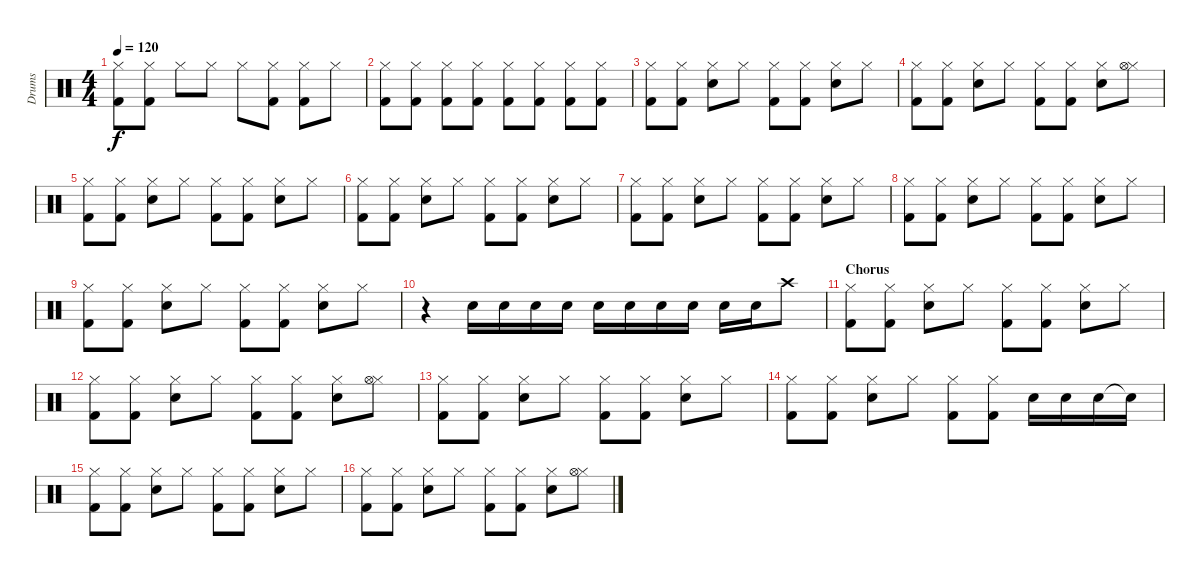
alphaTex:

\track ("Drums" "Drums") {instrument percussion}
\staff {score}
\articulation defaults
\ts (4 4)
\tempo 120
\clef neutral
\ks c
("Hi-Hat (closed)" "Kick (hit) 2").8{dy f} ("Hi-Hat (closed)" "Kick (hit) 2").8 "Hi-Hat (closed)".8 "Hi-Hat (closed)".8 "Hi-Hat (closed)".8 ("Hi-Hat (closed)" "Kick (hit) 2").8 ("Hi-Hat (closed)" "Kick (hit) 2").8 "Hi-Hat (closed)".8 |
("Hi-Hat (closed)" "Kick (hit) 2").8 ("Hi-Hat (closed)" "Kick (hit) 2").8 ("Hi-Hat (closed)" "Kick (hit) 2").8 ("Hi-Hat (closed)" "Kick (hit) 2").8 ("Hi-Hat (closed)" "Kick (hit) 2").8 ("Hi-Hat (closed)" "Kick (hit) 2").8 ("Hi-Hat (closed)" "Kick (hit) 2").8 ("Hi-Hat (closed)" "Kick (hit) 2").8 |
("Hi-Hat (closed)" "Kick (hit) 2").8 ("Hi-Hat (closed)" "Kick (hit) 2").8 ("Hi-Hat (closed)" "Snare (hit) 2").8 "Hi-Hat (closed)".8 ("Hi-Hat (closed)" "Kick (hit) 2").8 ("Hi-Hat (closed)" "Kick (hit) 2").8 ("Hi-Hat (closed)" "Snare (hit) 2").8 "Hi-Hat (closed)".8 |
("Hi-Hat (closed)" "Kick (hit) 2").8 ("Hi-Hat (closed)" "Kick (hit) 2").8 ("Hi-Hat (closed)" "Snare (hit) 2").8 "Hi-Hat (closed)".8 ("Hi-Hat (closed)" "Kick (hit) 2").8 ("Hi-Hat (closed)" "Kick (hit) 2").8 ("Hi-Hat (closed)" "Snare (hit) 2").8 ("Hi-Hat (closed)" "Hi-Hat (open)").8 |
("Hi-Hat (closed)" "Kick (hit) 2").8 ("Hi-Hat (closed)" "Kick (hit) 2").8 ("Hi-Hat (closed)" "Snare (hit) 2").8 "Hi-Hat (closed)".8 ("Hi-Hat (closed)" "Kick (hit) 2").8 ("Hi-Hat (closed)" "Kick (hit) 2").8 ("Hi-Hat (closed)" "Snare (hit) 2").8 "Hi-Hat (closed)".8 |
("Hi-Hat (closed)" "Kick (hit) 2").8 ("Hi-Hat (closed)" "Kick (hit) 2").8 ("Hi-Hat (closed)" "Snare (hit) 2").8 "Hi-Hat (closed)".8 ("Hi-Hat (closed)" "Kick (hit) 2").8 ("Hi-Hat (closed)" "Kick (hit) 2").8 ("Hi-Hat (closed)" "Snare (hit) 2").8 "Hi-Hat (closed)".8 |
("Hi-Hat (closed)" "Kick (hit) 2").8 ("Hi-Hat (closed)" "Kick (hit) 2").8 ("Hi-Hat (closed)" "Snare (hit) 2").8 "Hi-Hat (closed)".8 ("Hi-Hat (closed)" "Kick (hit) 2").8 ("Hi-Hat (closed)" "Kick (hit) 2").8 ("Hi-Hat (closed)" "Snare (hit) 2").8 "Hi-Hat (closed)".8 |
("Hi-Hat (closed)" "Kick (hit) 2").8 ("Hi-Hat (closed)" "Kick (hit) 2").8 ("Hi-Hat (closed)" "Snare (hit) 2").8 "Hi-Hat (closed)".8 ("Hi-Hat (closed)" "Kick (hit) 2").8 ("Hi-Hat (closed)" "Kick (hit) 2").8 ("Hi-Hat (closed)" "Snare (hit) 2").8 "Hi-Hat (closed)".8 |
("Hi-Hat (closed)" "Kick (hit) 2").8 ("Hi-Hat (closed)" "Kick (hit) 2").8 ("Hi-Hat (closed)" "Snare (hit) 2").8 "Hi-Hat (closed)".8 ("Hi-Hat (closed)" "Kick (hit) 2").8 ("Hi-Hat (closed)" "Kick (hit) 2").8 ("Hi-Hat (closed)" "Snare (hit) 2").8 "Hi-Hat (closed)".8 |
r.4 "Snare (hit) 2".16 "Snare (hit) 2".16 "Snare (hit) 2".16 "Snare (hit) 2".16 "Snare (hit) 2".16 "Snare (hit) 2".16 "Snare (hit) 2".16 "Snare (hit) 2".16 "Snare (hit) 2".16 "Snare (hit) 2".16 "Crash high (hit)".8 |
\section ("" "Chorus")
("Hi-Hat (closed)" "Kick (hit) 2").8 ("Hi-Hat (closed)" "Kick (hit) 2").8 ("Hi-Hat (closed)" "Snare (hit) 2").8 "Hi-Hat (closed)".8 ("Hi-Hat (closed)" "Kick (hit) 2").8 ("Hi-Hat (closed)" "Kick (hit) 2").8 ("Hi-Hat (closed)" "Snare (hit) 2").8 "Hi-Hat (closed)".8 |
("Hi-Hat (closed)" "Kick (hit) 2").8 ("Hi-Hat (closed)" "Kick (hit) 2").8 ("Hi-Hat (closed)" "Snare (hit) 2").8 "Hi-Hat (closed)".8 ("Hi-Hat (closed)" "Kick (hit) 2").8 ("Hi-Hat (closed)" "Kick (hit) 2").8 ("Hi-Hat (closed)" "Snare (hit) 2").8 ("Hi-Hat (closed)" "Hi-Hat (open)").8 |
("Hi-Hat (closed)" "Kick (hit) 2").8 ("Hi-Hat (closed)" "Kick (hit) 2").8 ("Hi-Hat (closed)" "Snare (hit) 2").8 "Hi-Hat (closed)".8 ("Hi-Hat (closed)" "Kick (hit) 2").8 ("Hi-Hat (closed)" "Kick (hit) 2").8 ("Hi-Hat (closed)" "Snare (hit) 2").8 "Hi-Hat (closed)".8 |
("Hi-Hat (closed)" "Kick (hit) 2").8 ("Hi-Hat (closed)" "Kick (hit) 2").8 ("Hi-Hat (closed)" "Snare (hit) 2").8 "Hi-Hat (closed)".8 ("Hi-Hat (closed)" "Kick (hit) 2").8 ("Hi-Hat (closed)" "Kick (hit) 2").8 "Snare (hit) 2".16 "Snare (hit) 2".16 "Snare (hit) 2".16 "Snare (hit)"{t}.16 |
("Hi-Hat (closed)" "Kick (hit) 2").8 ("Hi-Hat (closed)" "Kick (hit) 2").8 ("Hi-Hat (closed)" "Snare (hit) 2").8 "Hi-Hat (closed)".8 ("Hi-Hat (closed)" "Kick (hit) 2").8 ("Hi-Hat (closed)" "Kick (hit) 2").8 ("Hi-Hat (closed)" "Snare (hit) 2").8 "Hi-Hat (closed)".8 |
("Hi-Hat (closed)" "Kick (hit) 2").8 ("Hi-Hat (closed)" "Kick (hit) 2").8 ("Hi-Hat (closed)" "Snare (hit) 2").8 "Hi-Hat (closed)".8 ("Hi-Hat (closed)" "Kick (hit) 2").8 ("Hi-Hat (closed)" "Kick (hit) 2").8 ("Hi-Hat (closed)" "Snare (hit) 2").8 ("Hi-Hat (closed)" "Hi-Hat (open)").8
